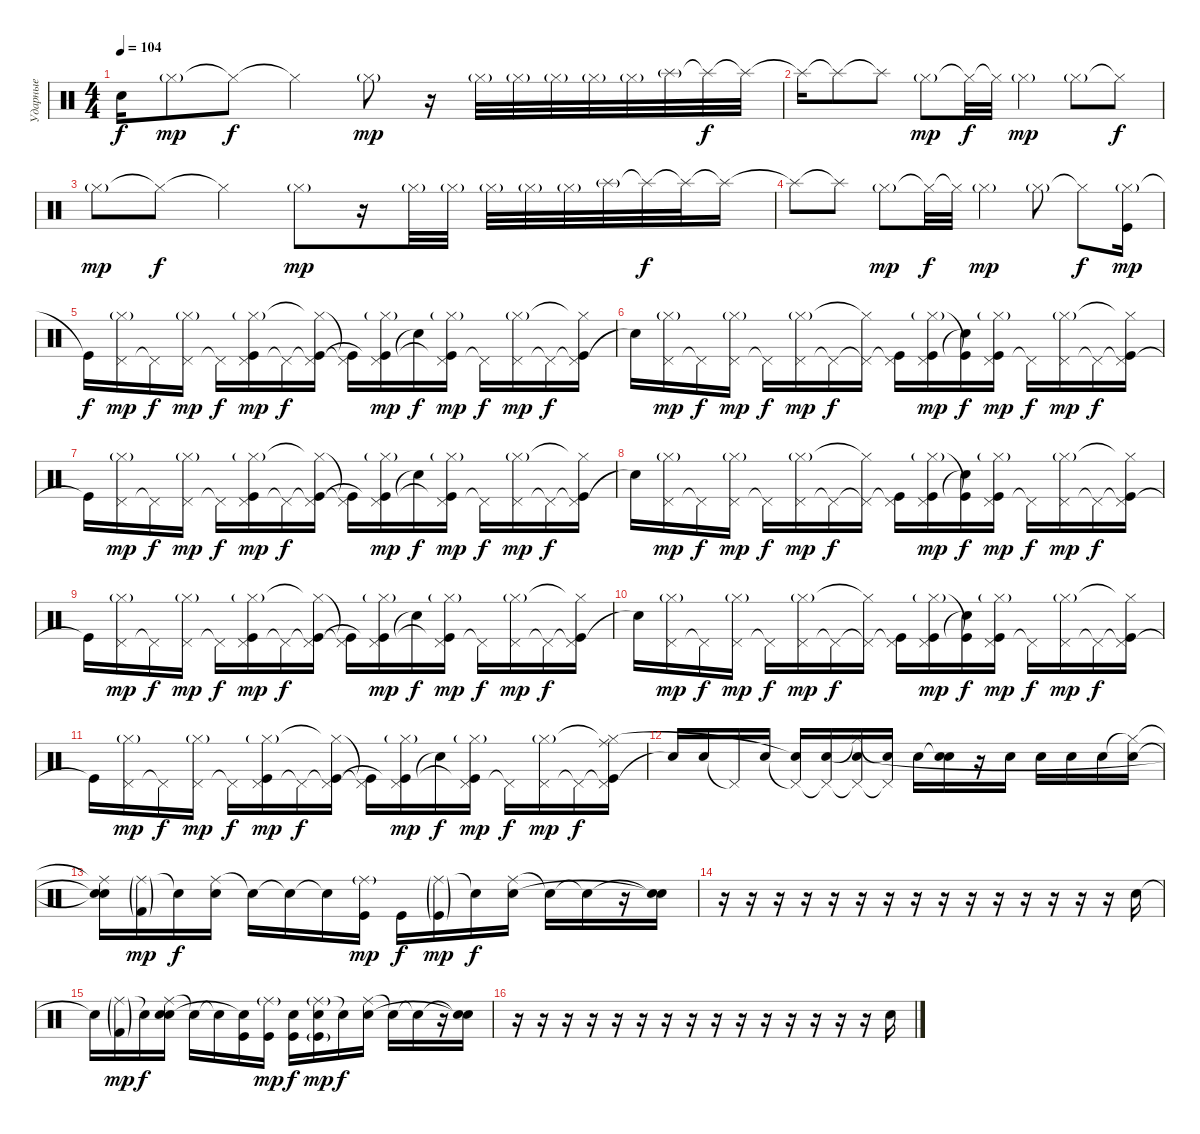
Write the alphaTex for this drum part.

\track ("Ударные" "Ударные") {instrument percussion}
\staff {score}
\articulation defaults
\ts (4 4)
\tempo 104
\clef neutral
\ks c "Snare (hit)"{t}.16{dy f} "Hi-Hat (closed)"{g}.8{dy mp} "Hi-Hat (closed)"{t}.8{dy f} "Hi-Hat (closed)"{t}.4 "Hi-Hat (closed)"{g}.8{dy mp}
r.16 "Hi-Hat (closed)"{g}.32 "Hi-Hat (closed)"{g}.32 "Hi-Hat (closed)"{g}.32 "Hi-Hat (closed)"{g}.32 "Hi-Hat (closed)"{g}.32 "Splash (hit)"{g}.32 "Splash (hit)"{t}.32{dy f} "Splash (hit)"{t}.32 |
"Splash (hit)"{t}.16 "Splash (hit)"{t}.8 "Splash (hit)"{t}.8 "Hi-Hat (closed)"{g}.8{dy mp} "Hi-Hat (closed)"{t}.32{dy f} "Hi-Hat (closed)"{t}.32 "Hi-Hat (closed)"{g}.4{dy mp} "Hi-Hat (closed)"{g}.8 "Hi-Hat (closed)"{t}.8{dy f} |
"Hi-Hat (closed)"{g}.8{dy mp} "Hi-Hat (closed)"{t}.8{dy f} "Hi-Hat (closed)"{t}.4 "Hi-Hat (closed)"{g}.8{dy mp} r.16 "Hi-Hat (closed)"{g}.32 "Hi-Hat (closed)"{g}.32 "Hi-Hat (closed)"{g}.32 "Hi-Hat (closed)"{g}.32 "Hi-Hat (closed)"{g}.32 "Splash (hit)"{g}.32 "Splash (hit)"{t}.32{dy f} "Splash (hit)"{t}.32 "Splash (hit)"{t}.16 |
"Splash (hit)"{t}.8 "Splash (hit)"{t}.8 "Hi-Hat (closed)"{g}.8{dy mp} "Hi-Hat (closed)"{t}.32{dy f} "Hi-Hat (closed)"{t}.32 "Hi-Hat (closed)"{g}.4{dy mp} "Hi-Hat (closed)"{g}.8 "Hi-Hat (closed)"{t}.8{dy f} ("Hi-Hat (closed)"{g} "Kick (hit)").16{dy mp} |
"Kick (hit)"{t}.16{dy f} ("Pedal Hi-Hat (hit)" "Hi-Hat (closed)"{g}).16{dy mp} "Pedal Hi-Hat (hit)"{t}.16{dy f} ("Pedal Hi-Hat (hit)" "Hi-Hat (closed)"{g}).16{dy mp} "Pedal Hi-Hat (hit)"{t}.16{dy f} ("Pedal Hi-Hat (hit)" "Hi-Hat (closed)"{g} "Kick (hit)").16{dy mp} "Pedal Hi-Hat (hit)"{t}.16{dy f} ("Pedal Hi-Hat (hit)"{t} "Hi-Hat (closed)"{t} "Kick (hit)").16 ("Pedal Hi-Hat (hit)"{t} "Kick (hit)"{t}).16 ("Pedal Hi-Hat (hit)" "Hi-Hat (closed)"{g} "Kick (hit)"{t}).16{dy mp} "Snare (hit)"{t}.16{dy f} ("Pedal Hi-Hat (hit)" "Hi-Hat (closed)"{g} "Kick (hit)"{t}).16{dy mp} "Pedal Hi-Hat (hit)"{t}.16{dy f} ("Pedal Hi-Hat (hit)" "Hi-Hat (closed)"{g}).16{dy mp} "Pedal Hi-Hat (hit)"{t}.16{dy f} ("Pedal Hi-Hat (hit)"{t} "Hi-Hat (closed)"{t} "Kick (hit)").16 |
"Snare (hit)"{t}.16 ("Pedal Hi-Hat (hit)" "Hi-Hat (closed)"{g}).16{dy mp} "Pedal Hi-Hat (hit)"{t}.16{dy f} ("Pedal Hi-Hat (hit)" "Hi-Hat (closed)"{g}).16{dy mp} "Pedal Hi-Hat (hit)"{t}.16{dy f} ("Pedal Hi-Hat (hit)" "Hi-Hat (closed)"{g}).16{dy mp} "Pedal Hi-Hat (hit)"{t}.16{dy f} ("Pedal Hi-Hat (hit)"{t} "Hi-Hat (closed)"{t}).16 ("Pedal Hi-Hat (hit)"{t} "Kick (hit)").16 ("Pedal Hi-Hat (hit)" "Hi-Hat (closed)"{g} "Kick (hit)").16{dy mp} ("Snare (hit)"{t} "Kick (hit)"{t}).16{dy f} ("Pedal Hi-Hat (hit)" "Hi-Hat (closed)"{g} "Kick (hit)").16{dy mp} "Pedal Hi-Hat (hit)"{t}.16{dy f} ("Pedal Hi-Hat (hit)" "Hi-Hat (closed)"{g}).16{dy mp} "Pedal Hi-Hat (hit)"{t}.16{dy f} ("Pedal Hi-Hat (hit)"{t} "Hi-Hat (closed)"{t} "Kick (hit)").16 |
"Kick (hit)"{t}.16 ("Pedal Hi-Hat (hit)" "Hi-Hat (closed)"{g}).16{dy mp} "Pedal Hi-Hat (hit)"{t}.16{dy f} ("Pedal Hi-Hat (hit)" "Hi-Hat (closed)"{g}).16{dy mp} "Pedal Hi-Hat (hit)"{t}.16{dy f} ("Pedal Hi-Hat (hit)" "Hi-Hat (closed)"{g} "Kick (hit)").16{dy mp} "Pedal Hi-Hat (hit)"{t}.16{dy f} ("Pedal Hi-Hat (hit)"{t} "Hi-Hat (closed)"{t} "Kick (hit)").16 ("Pedal Hi-Hat (hit)"{t} "Kick (hit)"{t}).16 ("Pedal Hi-Hat (hit)" "Hi-Hat (closed)"{g} "Kick (hit)"{t}).16{dy mp} "Snare (hit)"{t}.16{dy f} ("Pedal Hi-Hat (hit)" "Hi-Hat (closed)"{g} "Kick (hit)"{t}).16{dy mp} "Pedal Hi-Hat (hit)"{t}.16{dy f} ("Pedal Hi-Hat (hit)" "Hi-Hat (closed)"{g}).16{dy mp} "Pedal Hi-Hat (hit)"{t}.16{dy f} ("Pedal Hi-Hat (hit)"{t} "Hi-Hat (closed)"{t} "Kick (hit)").16 |
"Snare (hit)"{t}.16 ("Pedal Hi-Hat (hit)" "Hi-Hat (closed)"{g}).16{dy mp} "Pedal Hi-Hat (hit)"{t}.16{dy f} ("Pedal Hi-Hat (hit)" "Hi-Hat (closed)"{g}).16{dy mp} "Pedal Hi-Hat (hit)"{t}.16{dy f} ("Pedal Hi-Hat (hit)" "Hi-Hat (closed)"{g}).16{dy mp} "Pedal Hi-Hat (hit)"{t}.16{dy f} ("Pedal Hi-Hat (hit)"{t} "Hi-Hat (closed)"{t}).16 ("Pedal Hi-Hat (hit)"{t} "Kick (hit)").16 ("Pedal Hi-Hat (hit)" "Hi-Hat (closed)"{g} "Kick (hit)").16{dy mp} ("Snare (hit)"{t} "Kick (hit)"{t}).16{dy f} ("Pedal Hi-Hat (hit)" "Hi-Hat (closed)"{g} "Kick (hit)").16{dy mp} "Pedal Hi-Hat (hit)"{t}.16{dy f} ("Pedal Hi-Hat (hit)" "Hi-Hat (closed)"{g}).16{dy mp} "Pedal Hi-Hat (hit)"{t}.16{dy f} ("Pedal Hi-Hat (hit)"{t} "Hi-Hat (closed)"{t} "Kick (hit)").16 |
"Kick (hit)"{t}.16 ("Pedal Hi-Hat (hit)" "Hi-Hat (closed)"{g}).16{dy mp} "Pedal Hi-Hat (hit)"{t}.16{dy f} ("Pedal Hi-Hat (hit)" "Hi-Hat (closed)"{g}).16{dy mp} "Pedal Hi-Hat (hit)"{t}.16{dy f} ("Pedal Hi-Hat (hit)" "Hi-Hat (closed)"{g} "Kick (hit)").16{dy mp} "Pedal Hi-Hat (hit)"{t}.16{dy f} ("Pedal Hi-Hat (hit)"{t} "Hi-Hat (closed)"{t} "Kick (hit)").16 ("Pedal Hi-Hat (hit)"{t} "Kick (hit)"{t}).16 ("Pedal Hi-Hat (hit)" "Hi-Hat (closed)"{g} "Kick (hit)"{t}).16{dy mp} "Snare (hit)"{t}.16{dy f} ("Pedal Hi-Hat (hit)" "Hi-Hat (closed)"{g} "Kick (hit)"{t}).16{dy mp} "Pedal Hi-Hat (hit)"{t}.16{dy f} ("Pedal Hi-Hat (hit)" "Hi-Hat (closed)"{g}).16{dy mp} "Pedal Hi-Hat (hit)"{t}.16{dy f} ("Pedal Hi-Hat (hit)"{t} "Hi-Hat (closed)"{t} "Kick (hit)").16 |
"Snare (hit)"{t}.16 ("Pedal Hi-Hat (hit)" "Hi-Hat (closed)"{g}).16{dy mp} "Pedal Hi-Hat (hit)"{t}.16{dy f} ("Pedal Hi-Hat (hit)" "Hi-Hat (closed)"{g}).16{dy mp} "Pedal Hi-Hat (hit)"{t}.16{dy f} ("Pedal Hi-Hat (hit)" "Hi-Hat (closed)"{g}).16{dy mp} "Pedal Hi-Hat (hit)"{t}.16{dy f} ("Pedal Hi-Hat (hit)"{t} "Hi-Hat (closed)"{t}).16 ("Pedal Hi-Hat (hit)"{t} "Kick (hit)").16 ("Pedal Hi-Hat (hit)" "Hi-Hat (closed)"{g} "Kick (hit)").16{dy mp} ("Snare (hit)"{t} "Kick (hit)"{t}).16{dy f} ("Pedal Hi-Hat (hit)" "Hi-Hat (closed)"{g} "Kick (hit)").16{dy mp} "Pedal Hi-Hat (hit)"{t}.16{dy f} ("Pedal Hi-Hat (hit)" "Hi-Hat (closed)"{g}).16{dy mp} "Pedal Hi-Hat (hit)"{t}.16{dy f} ("Pedal Hi-Hat (hit)"{t} "Hi-Hat (closed)"{t} "Kick (hit)").16 |
"Kick (hit)"{t}.16 ("Pedal Hi-Hat (hit)" "Hi-Hat (closed)"{g}).16{dy mp} "Pedal Hi-Hat (hit)"{t}.16{dy f} ("Pedal Hi-Hat (hit)" "Hi-Hat (closed)"{g}).16{dy mp} "Pedal Hi-Hat (hit)"{t}.16{dy f} ("Pedal Hi-Hat (hit)" "Hi-Hat (closed)"{g} "Kick (hit)").16{dy mp} "Pedal Hi-Hat (hit)"{t}.16{dy f} ("Pedal Hi-Hat (hit)"{t} "Hi-Hat (closed)"{t} "Kick (hit)").16 ("Pedal Hi-Hat (hit)"{t} "Kick (hit)"{t}).16 ("Pedal Hi-Hat (hit)" "Hi-Hat (closed)"{g} "Kick (hit)"{t}).16{dy mp} "Snare (hit)"{t}.16{dy f} ("Pedal Hi-Hat (hit)" "Hi-Hat (closed)"{g} "Kick (hit)"{t}).16{dy mp} "Pedal Hi-Hat (hit)"{t}.16{dy f} ("Pedal Hi-Hat (hit)" "Hi-Hat (closed)"{g}).16{dy mp} "Pedal Hi-Hat (hit)"{t}.16{dy f} ("Pedal Hi-Hat (hit)"{t} "Hi-Hat (closed)"{t} "Kick (hit)" "Ride (middle)").16 |
"Snare (hit)"{t}.16 "Snare (hit) 2".16 "Pedal Hi-Hat (hit)"{t}.16 "Snare (hit) 2".16 ("Pedal Hi-Hat (hit)"{t} "Snare (hit) 2"{t}).16 ("Pedal Hi-Hat (hit)"{t} "Electric Snare (hit)").16 ("Pedal Hi-Hat (hit)"{t} "Hi-Hat (closed)"{t} "Snare (hit) 2").16 ("Pedal Hi-Hat (hit)"{t} "Snare (hit)"{t}).16 "Electric Snare (hit)".16 ("Snare (hit)"{t} "Snare (hit) 2").16 r.16 "Electric Snare (hit)".16 "Electric Snare (hit)".16 "Snare (hit) 2".16 "Snare (hit) 2".16 ("Hi-Hat (closed)"{t} "Snare (hit) 2").16 |
("Ride (middle)"{t} "Snare (hit) 2"{t} "Snare (hit)"{t}).16 ("Ride (middle)"{g} "Kick (hit) 2"{g}).16{dy mp} "Electric Snare (hit)"{t}.16{dy f} ("Ride (middle)" "Snare (hit) 2").16 "Electric Snare (hit)"{t}.16 "Electric Snare (hit)"{t}.16 "Electric Snare (hit)"{t}.16 ("Ride (middle)"{g} "Kick (hit)").16{dy mp} "Kick (hit)".16{dy f} ("Ride (middle)"{g} "Kick (hit)"{g}).16{dy mp} "Electric Snare (hit)"{t}.16{dy f} ("Ride (middle)" "Snare (hit) 2").16 "Electric Snare (hit)"{t}.16 "Electric Snare (hit)"{t}.16 r.16 ("Snare (hit)"{t} "Snare (hit)"{t}).16 |
r.16 r.16 r.16 r.16 r.16 r.16 r.16 r.16 r.16 r.16 r.16 r.16 r.16 r.16 r.16 "Snare (hit) 2".16 |
"Snare (hit) 2"{t}.16 ("Ride (middle)"{g} "Kick (hit) 2"{g}).16{dy mp} "Electric Snare (hit)"{t}.16{dy f} ("Ride (middle)" "Snare (hit) 2" "Snare (hit) 2").16 "Electric Snare (hit)"{t}.16 "Electric Snare (hit)"{t}.16 ("Kick (hit)" "Electric Snare (hit)"{t}).16 ("Ride (middle)"{g} "Kick (hit)").16{dy mp} ("Snare (hit) 2" "Kick (hit)").16{dy f} ("Ride (middle)"{g} "Snare (hit) 2" "Kick (hit)"{g}).16{dy mp} "Electric Snare (hit)"{t}.16{dy f} ("Ride (middle)" "Snare (hit) 2").16 "Electric Snare (hit)"{t}.16 "Electric Snare (hit)"{t}.16 r.16 ("Snare (hit)"{t} "Snare (hit)"{t}).16 |
r.16 r.16 r.16 r.16 r.16 r.16 r.16 r.16 r.16 r.16 r.16 r.16 r.16 r.16 r.16 "Snare (hit) 2".16
